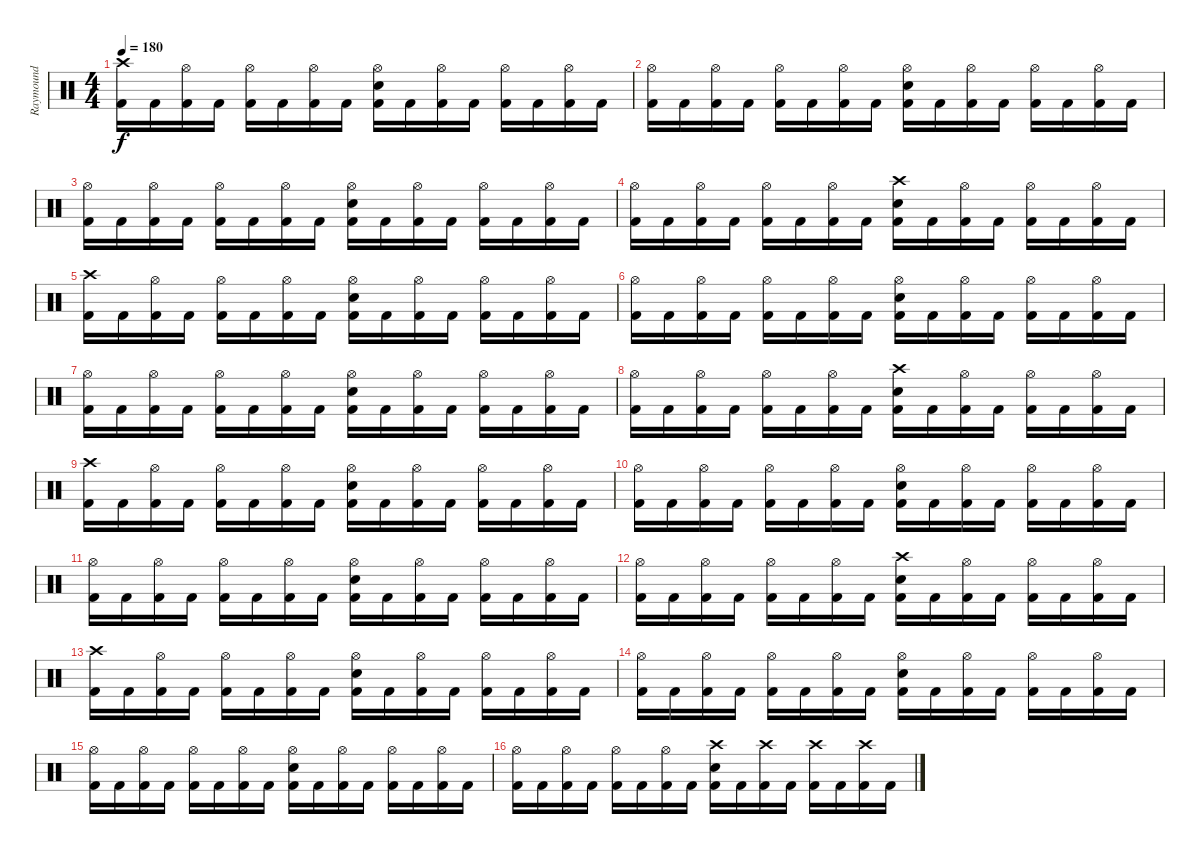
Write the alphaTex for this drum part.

\track ("Raymound " "Raymound ") {instrument percussion}
\staff {score}
\articulation defaults
\ts (4 4)
\tempo 180
\clef neutral
\ks c
("Crash high (hit)" "Kick (hit) 2").16{dy f} "Kick (hit) 2".16 ("Hi-Hat (open)" "Kick (hit) 2").16 "Kick (hit) 2".16 ("Hi-Hat (open)" "Kick (hit) 2").16 "Kick (hit) 2".16 ("Hi-Hat (open)" "Kick (hit) 2").16 "Kick (hit) 2".16 ("Hi-Hat (open)" "Electric Snare (hit)" "Kick (hit) 2").16 "Kick (hit) 2".16 ("Hi-Hat (open)" "Kick (hit) 2").16 "Kick (hit) 2".16 ("Hi-Hat (open)" "Kick (hit) 2").16 "Kick (hit) 2".16 ("Hi-Hat (open)" "Kick (hit) 2").16 "Kick (hit) 2".16 |
("Hi-Hat (open)" "Kick (hit) 2").16 "Kick (hit) 2".16 ("Hi-Hat (open)" "Kick (hit) 2").16 "Kick (hit) 2".16 ("Hi-Hat (open)" "Kick (hit) 2").16 "Kick (hit) 2".16 ("Hi-Hat (open)" "Kick (hit) 2").16 "Kick (hit) 2".16 ("Hi-Hat (open)" "Electric Snare (hit)" "Kick (hit) 2").16 "Kick (hit) 2".16 ("Hi-Hat (open)" "Kick (hit) 2").16 "Kick (hit) 2".16 ("Hi-Hat (open)" "Kick (hit) 2").16 "Kick (hit) 2".16 ("Hi-Hat (open)" "Kick (hit) 2").16 "Kick (hit) 2".16 |
("Hi-Hat (open)" "Kick (hit) 2").16 "Kick (hit) 2".16 ("Hi-Hat (open)" "Kick (hit) 2").16 "Kick (hit) 2".16 ("Hi-Hat (open)" "Kick (hit) 2").16 "Kick (hit) 2".16 ("Hi-Hat (open)" "Kick (hit) 2").16 "Kick (hit) 2".16 ("Hi-Hat (open)" "Electric Snare (hit)" "Kick (hit) 2").16 "Kick (hit) 2".16 ("Hi-Hat (open)" "Kick (hit) 2").16 "Kick (hit) 2".16 ("Hi-Hat (open)" "Kick (hit) 2").16 "Kick (hit) 2".16 ("Hi-Hat (open)" "Kick (hit) 2").16 "Kick (hit) 2".16 |
("Hi-Hat (open)" "Kick (hit) 2").16 "Kick (hit) 2".16 ("Hi-Hat (open)" "Kick (hit) 2").16 "Kick (hit) 2".16 ("Hi-Hat (open)" "Kick (hit) 2").16 "Kick (hit) 2".16 ("Hi-Hat (open)" "Kick (hit) 2").16 "Kick (hit) 2".16 ("Crash high (hit)" "Electric Snare (hit)" "Kick (hit) 2").16 "Kick (hit) 2".16 ("Hi-Hat (open)" "Kick (hit) 2").16 "Kick (hit) 2".16 ("Hi-Hat (open)" "Kick (hit) 2").16 "Kick (hit) 2".16 ("Hi-Hat (open)" "Kick (hit) 2").16 "Kick (hit) 2".16 |
("Crash high (hit)" "Kick (hit) 2").16 "Kick (hit) 2".16 ("Hi-Hat (open)" "Kick (hit) 2").16 "Kick (hit) 2".16 ("Hi-Hat (open)" "Kick (hit) 2").16 "Kick (hit) 2".16 ("Hi-Hat (open)" "Kick (hit) 2").16 "Kick (hit) 2".16 ("Hi-Hat (open)" "Electric Snare (hit)" "Kick (hit) 2").16 "Kick (hit) 2".16 ("Hi-Hat (open)" "Kick (hit) 2").16 "Kick (hit) 2".16 ("Hi-Hat (open)" "Kick (hit) 2").16 "Kick (hit) 2".16 ("Hi-Hat (open)" "Kick (hit) 2").16 "Kick (hit) 2".16 |
("Hi-Hat (open)" "Kick (hit) 2").16 "Kick (hit) 2".16 ("Hi-Hat (open)" "Kick (hit) 2").16 "Kick (hit) 2".16 ("Hi-Hat (open)" "Kick (hit) 2").16 "Kick (hit) 2".16 ("Hi-Hat (open)" "Kick (hit) 2").16 "Kick (hit) 2".16 ("Hi-Hat (open)" "Electric Snare (hit)" "Kick (hit) 2").16 "Kick (hit) 2".16 ("Hi-Hat (open)" "Kick (hit) 2").16 "Kick (hit) 2".16 ("Hi-Hat (open)" "Kick (hit) 2").16 "Kick (hit) 2".16 ("Hi-Hat (open)" "Kick (hit) 2").16 "Kick (hit) 2".16 |
("Hi-Hat (open)" "Kick (hit) 2").16 "Kick (hit) 2".16 ("Hi-Hat (open)" "Kick (hit) 2").16 "Kick (hit) 2".16 ("Hi-Hat (open)" "Kick (hit) 2").16 "Kick (hit) 2".16 ("Hi-Hat (open)" "Kick (hit) 2").16 "Kick (hit) 2".16 ("Hi-Hat (open)" "Electric Snare (hit)" "Kick (hit) 2").16 "Kick (hit) 2".16 ("Hi-Hat (open)" "Kick (hit) 2").16 "Kick (hit) 2".16 ("Hi-Hat (open)" "Kick (hit) 2").16 "Kick (hit) 2".16 ("Hi-Hat (open)" "Kick (hit) 2").16 "Kick (hit) 2".16 |
("Hi-Hat (open)" "Kick (hit) 2").16 "Kick (hit) 2".16 ("Hi-Hat (open)" "Kick (hit) 2").16 "Kick (hit) 2".16 ("Hi-Hat (open)" "Kick (hit) 2").16 "Kick (hit) 2".16 ("Hi-Hat (open)" "Kick (hit) 2").16 "Kick (hit) 2".16 ("Crash high (hit)" "Electric Snare (hit)" "Kick (hit) 2").16 "Kick (hit) 2".16 ("Hi-Hat (open)" "Kick (hit) 2").16 "Kick (hit) 2".16 ("Hi-Hat (open)" "Kick (hit) 2").16 "Kick (hit) 2".16 ("Hi-Hat (open)" "Kick (hit) 2").16 "Kick (hit) 2".16 |
("Crash high (hit)" "Kick (hit) 2").16 "Kick (hit) 2".16 ("Hi-Hat (open)" "Kick (hit) 2").16 "Kick (hit) 2".16 ("Hi-Hat (open)" "Kick (hit) 2").16 "Kick (hit) 2".16 ("Hi-Hat (open)" "Kick (hit) 2").16 "Kick (hit) 2".16 ("Hi-Hat (open)" "Electric Snare (hit)" "Kick (hit) 2").16 "Kick (hit) 2".16 ("Hi-Hat (open)" "Kick (hit) 2").16 "Kick (hit) 2".16 ("Hi-Hat (open)" "Kick (hit) 2").16 "Kick (hit) 2".16 ("Hi-Hat (open)" "Kick (hit) 2").16 "Kick (hit) 2".16 |
("Hi-Hat (open)" "Kick (hit) 2").16 "Kick (hit) 2".16 ("Hi-Hat (open)" "Kick (hit) 2").16 "Kick (hit) 2".16 ("Hi-Hat (open)" "Kick (hit) 2").16 "Kick (hit) 2".16 ("Hi-Hat (open)" "Kick (hit) 2").16 "Kick (hit) 2".16 ("Hi-Hat (open)" "Electric Snare (hit)" "Kick (hit) 2").16 "Kick (hit) 2".16 ("Hi-Hat (open)" "Kick (hit) 2").16 "Kick (hit) 2".16 ("Hi-Hat (open)" "Kick (hit) 2").16 "Kick (hit) 2".16 ("Hi-Hat (open)" "Kick (hit) 2").16 "Kick (hit) 2".16 |
("Hi-Hat (open)" "Kick (hit) 2").16 "Kick (hit) 2".16 ("Hi-Hat (open)" "Kick (hit) 2").16 "Kick (hit) 2".16 ("Hi-Hat (open)" "Kick (hit) 2").16 "Kick (hit) 2".16 ("Hi-Hat (open)" "Kick (hit) 2").16 "Kick (hit) 2".16 ("Hi-Hat (open)" "Electric Snare (hit)" "Kick (hit) 2").16 "Kick (hit) 2".16 ("Hi-Hat (open)" "Kick (hit) 2").16 "Kick (hit) 2".16 ("Hi-Hat (open)" "Kick (hit) 2").16 "Kick (hit) 2".16 ("Hi-Hat (open)" "Kick (hit) 2").16 "Kick (hit) 2".16 |
("Hi-Hat (open)" "Kick (hit) 2").16 "Kick (hit) 2".16 ("Hi-Hat (open)" "Kick (hit) 2").16 "Kick (hit) 2".16 ("Hi-Hat (open)" "Kick (hit) 2").16 "Kick (hit) 2".16 ("Hi-Hat (open)" "Kick (hit) 2").16 "Kick (hit) 2".16 ("Crash high (hit)" "Electric Snare (hit)" "Kick (hit) 2").16 "Kick (hit) 2".16 ("Hi-Hat (open)" "Kick (hit) 2").16 "Kick (hit) 2".16 ("Hi-Hat (open)" "Kick (hit) 2").16 "Kick (hit) 2".16 ("Hi-Hat (open)" "Kick (hit) 2").16 "Kick (hit) 2".16 |
("Crash high (hit)" "Kick (hit) 2").16 "Kick (hit) 2".16 ("Hi-Hat (open)" "Kick (hit) 2").16 "Kick (hit) 2".16 ("Hi-Hat (open)" "Kick (hit) 2").16 "Kick (hit) 2".16 ("Hi-Hat (open)" "Kick (hit) 2").16 "Kick (hit) 2".16 ("Hi-Hat (open)" "Electric Snare (hit)" "Kick (hit) 2").16 "Kick (hit) 2".16 ("Hi-Hat (open)" "Kick (hit) 2").16 "Kick (hit) 2".16 ("Hi-Hat (open)" "Kick (hit) 2").16 "Kick (hit) 2".16 ("Hi-Hat (open)" "Kick (hit) 2").16 "Kick (hit) 2".16 |
("Hi-Hat (open)" "Kick (hit) 2").16 "Kick (hit) 2".16 ("Hi-Hat (open)" "Kick (hit) 2").16 "Kick (hit) 2".16 ("Hi-Hat (open)" "Kick (hit) 2").16 "Kick (hit) 2".16 ("Hi-Hat (open)" "Kick (hit) 2").16 "Kick (hit) 2".16 ("Hi-Hat (open)" "Electric Snare (hit)" "Kick (hit) 2").16 "Kick (hit) 2".16 ("Hi-Hat (open)" "Kick (hit) 2").16 "Kick (hit) 2".16 ("Hi-Hat (open)" "Kick (hit) 2").16 "Kick (hit) 2".16 ("Hi-Hat (open)" "Kick (hit) 2").16 "Kick (hit) 2".16 |
("Hi-Hat (open)" "Kick (hit) 2").16 "Kick (hit) 2".16 ("Hi-Hat (open)" "Kick (hit) 2").16 "Kick (hit) 2".16 ("Hi-Hat (open)" "Kick (hit) 2").16 "Kick (hit) 2".16 ("Hi-Hat (open)" "Kick (hit) 2").16 "Kick (hit) 2".16 ("Hi-Hat (open)" "Electric Snare (hit)" "Kick (hit) 2").16 "Kick (hit) 2".16 ("Hi-Hat (open)" "Kick (hit) 2").16 "Kick (hit) 2".16 ("Hi-Hat (open)" "Kick (hit) 2").16 "Kick (hit) 2".16 ("Hi-Hat (open)" "Kick (hit) 2").16 "Kick (hit) 2".16 |
("Hi-Hat (open)" "Kick (hit) 2").16 "Kick (hit) 2".16 ("Hi-Hat (open)" "Kick (hit) 2").16 "Kick (hit) 2".16 ("Hi-Hat (open)" "Kick (hit) 2").16 "Kick (hit) 2".16 ("Hi-Hat (open)" "Kick (hit) 2").16 "Kick (hit) 2".16 ("Crash high (hit)" "Electric Snare (hit)" "Kick (hit) 2").16 "Kick (hit) 2".16 ("Crash high (hit)" "Kick (hit) 2").16 "Kick (hit) 2".16 ("Crash high (hit)" "Kick (hit) 2").16 "Kick (hit) 2".16 ("Crash high (hit)" "Kick (hit) 2").16 "Kick (hit) 2".16
